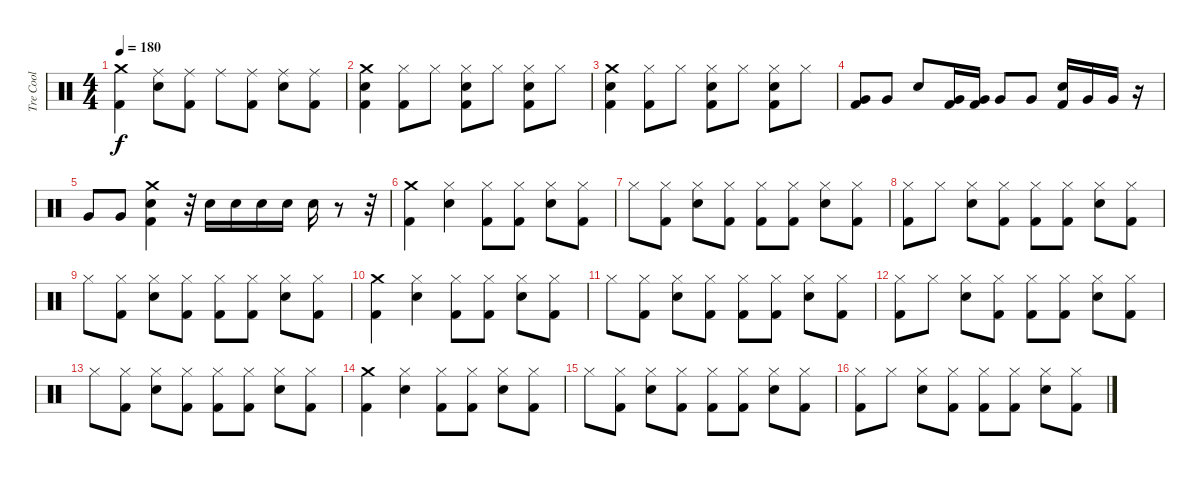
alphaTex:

\track ("Tre Cool" "Tre Cool") {instrument percussion}
\staff {score}
\articulation defaults
\ts (4 4)
\tempo 180
\clef neutral
\ks c
("Crash medium (hit)" "Kick (hit) 2").4{dy f} ("Ride (middle)" "Snare (hit) 2").8 ("Ride (middle)" "Kick (hit) 2").8 "Ride (middle)".8 ("Ride (middle)" "Kick (hit) 2").8 ("Ride (middle)" "Snare (hit) 2").8 ("Ride (middle)" "Kick (hit) 2").8 |
("Crash medium (hit)" "Snare (hit) 2" "Kick (hit) 2").4 ("Hi-Hat (closed)" "Kick (hit) 2").8 "Hi-Hat (closed)".8 ("Hi-Hat (closed)" "Snare (hit) 2" "Kick (hit) 2").8 "Hi-Hat (closed)".8 ("Hi-Hat (closed)" "Snare (hit) 2" "Kick (hit) 2").8 "Hi-Hat (closed)".8 |
("Crash medium (hit)" "Snare (hit) 2" "Kick (hit) 2").4 ("Hi-Hat (closed)" "Kick (hit) 2").8 "Hi-Hat (closed)".8 ("Hi-Hat (closed)" "Snare (hit) 2" "Kick (hit) 2").8 "Hi-Hat (closed)".8 ("Hi-Hat (closed)" "Snare (hit) 2" "Kick (hit) 2").8 "Hi-Hat (closed)".8 |
("Very Low Tom (hit)" "Kick (hit) 2").8 "Very Low Tom (hit)".8 "Snare (hit) 2".8 ("Very Low Tom (hit)" "Kick (hit) 2").16 ("Very Low Tom (hit)" "Kick (hit) 2").16 "Very Low Tom (hit)".8 "Very Low Tom (hit)".8 ("Snare (hit) 2" "Kick (hit) 2").16 "Very Low Tom (hit)".16 "Very Low Tom (hit)".16 r.16 |
"Very Low Tom (hit)".8 "Very Low Tom (hit)".8 ("Crash medium (hit)" "Snare (hit) 2" "Kick (hit) 2").4 r.32 "Snare (hit) 2".16 "Snare (hit) 2".16 "Snare (hit) 2".16 "Snare (hit) 2".16 "Snare (hit) 2".16 r.8 r.32 |
("Crash medium (hit)" "Kick (hit) 2").4 ("Hi-Hat (closed)" "Snare (hit) 2").4 ("Hi-Hat (closed)" "Kick (hit) 2").8 ("Hi-Hat (closed)" "Kick (hit) 2").8 ("Hi-Hat (closed)" "Snare (hit) 2").8 ("Hi-Hat (closed)" "Kick (hit) 2").8 |
"Hi-Hat (closed)".8 ("Hi-Hat (closed)" "Kick (hit) 2").8 ("Hi-Hat (closed)" "Snare (hit) 2").8 ("Hi-Hat (closed)" "Kick (hit) 2").8 ("Hi-Hat (closed)" "Kick (hit) 2").8 ("Hi-Hat (closed)" "Kick (hit) 2").8 ("Hi-Hat (closed)" "Snare (hit) 2").8 ("Hi-Hat (closed)" "Kick (hit) 2").8 |
("Hi-Hat (closed)" "Kick (hit) 2").8 "Hi-Hat (closed)".8 ("Hi-Hat (closed)" "Snare (hit) 2").8 ("Hi-Hat (closed)" "Kick (hit) 2").8 ("Hi-Hat (closed)" "Kick (hit) 2").8 ("Hi-Hat (closed)" "Kick (hit) 2").8 ("Hi-Hat (closed)" "Snare (hit) 2").8 ("Hi-Hat (closed)" "Kick (hit) 2").8 |
"Hi-Hat (closed)".8 ("Hi-Hat (closed)" "Kick (hit) 2").8 ("Hi-Hat (closed)" "Snare (hit) 2").8 ("Hi-Hat (closed)" "Kick (hit) 2").8 ("Hi-Hat (closed)" "Kick (hit) 2").8 ("Hi-Hat (closed)" "Kick (hit) 2").8 ("Hi-Hat (closed)" "Snare (hit) 2").8 ("Hi-Hat (closed)" "Kick (hit) 2").8 |
("Crash medium (hit)" "Kick (hit) 2").4 ("Hi-Hat (closed)" "Snare (hit) 2").4 ("Hi-Hat (closed)" "Kick (hit) 2").8 ("Hi-Hat (closed)" "Kick (hit) 2").8 ("Hi-Hat (closed)" "Snare (hit) 2").8 ("Hi-Hat (closed)" "Kick (hit) 2").8 |
"Hi-Hat (closed)".8 ("Hi-Hat (closed)" "Kick (hit) 2").8 ("Hi-Hat (closed)" "Snare (hit) 2").8 ("Hi-Hat (closed)" "Kick (hit) 2").8 ("Hi-Hat (closed)" "Kick (hit) 2").8 ("Hi-Hat (closed)" "Kick (hit) 2").8 ("Hi-Hat (closed)" "Snare (hit) 2").8 ("Hi-Hat (closed)" "Kick (hit) 2").8 |
("Hi-Hat (closed)" "Kick (hit) 2").8 "Hi-Hat (closed)".8 ("Hi-Hat (closed)" "Snare (hit) 2").8 ("Hi-Hat (closed)" "Kick (hit) 2").8 ("Hi-Hat (closed)" "Kick (hit) 2").8 ("Hi-Hat (closed)" "Kick (hit) 2").8 ("Hi-Hat (closed)" "Snare (hit) 2").8 ("Hi-Hat (closed)" "Kick (hit) 2").8 |
"Hi-Hat (closed)".8 ("Hi-Hat (closed)" "Kick (hit) 2").8 ("Hi-Hat (closed)" "Snare (hit) 2").8 ("Hi-Hat (closed)" "Kick (hit) 2").8 ("Hi-Hat (closed)" "Kick (hit) 2").8 ("Hi-Hat (closed)" "Kick (hit) 2").8 ("Hi-Hat (closed)" "Snare (hit) 2").8 ("Hi-Hat (closed)" "Kick (hit) 2").8 |
("Crash medium (hit)" "Kick (hit) 2").4 ("Hi-Hat (closed)" "Snare (hit) 2").4 ("Hi-Hat (closed)" "Kick (hit) 2").8 ("Hi-Hat (closed)" "Kick (hit) 2").8 ("Hi-Hat (closed)" "Snare (hit) 2").8 ("Hi-Hat (closed)" "Kick (hit) 2").8 |
"Hi-Hat (closed)".8 ("Hi-Hat (closed)" "Kick (hit) 2").8 ("Hi-Hat (closed)" "Snare (hit) 2").8 ("Hi-Hat (closed)" "Kick (hit) 2").8 ("Hi-Hat (closed)" "Kick (hit) 2").8 ("Hi-Hat (closed)" "Kick (hit) 2").8 ("Hi-Hat (closed)" "Snare (hit) 2").8 ("Hi-Hat (closed)" "Kick (hit) 2").8 |
("Hi-Hat (closed)" "Kick (hit) 2").8 "Hi-Hat (closed)".8 ("Hi-Hat (closed)" "Snare (hit) 2").8 ("Hi-Hat (closed)" "Kick (hit) 2").8 ("Hi-Hat (closed)" "Kick (hit) 2").8 ("Hi-Hat (closed)" "Kick (hit) 2").8 ("Hi-Hat (closed)" "Snare (hit) 2").8 ("Hi-Hat (closed)" "Kick (hit) 2").8
